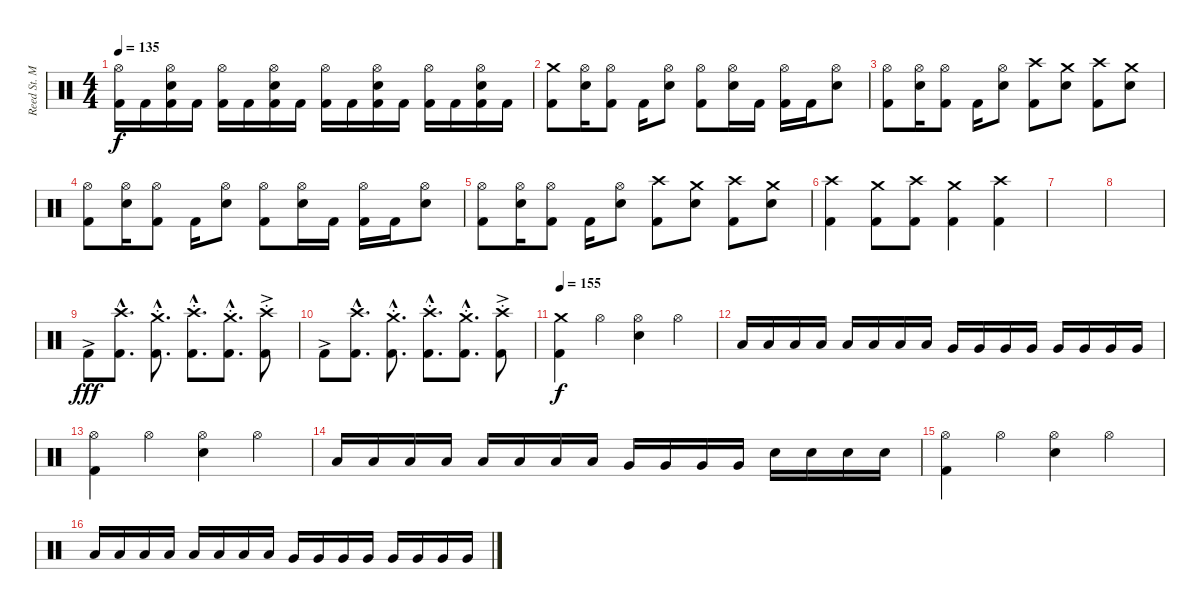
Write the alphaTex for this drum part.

\track ("Reed St. Mark" "Reed St. M") {instrument percussion}
\staff {score}
\articulation defaults
\ts (4 4)
\tempo 135
\clef neutral
\ks c
("Hi-Hat (open)" "Kick (hit) 2").16{dy f} "Kick (hit) 2".16 ("Hi-Hat (open)" "Snare (hit) 2" "Kick (hit) 2").16 "Kick (hit) 2".16 ("Hi-Hat (open)" "Kick (hit) 2").16 "Kick (hit) 2".16 ("Hi-Hat (open)" "Snare (hit) 2" "Kick (hit) 2").16 "Kick (hit) 2".16 ("Hi-Hat (open)" "Kick (hit) 2").16 "Kick (hit) 2".16 ("Hi-Hat (open)" "Snare (hit) 2" "Kick (hit) 2").16 "Kick (hit) 2".16 ("Hi-Hat (open)" "Kick (hit) 2").16 "Kick (hit) 2".16 ("Hi-Hat (open)" "Snare (hit) 2" "Kick (hit) 2").16 "Kick (hit) 2".16 |
("Crash medium (hit)" "Kick (hit) 2").8 ("Hi-Hat (open)" "Snare (hit) 2").16 ("Hi-Hat (open)" "Kick (hit) 2").8 "Kick (hit) 2".16 ("Hi-Hat (open)" "Snare (hit) 2").8 ("Hi-Hat (open)" "Kick (hit) 2").8 ("Hi-Hat (open)" "Snare (hit) 2").16 "Kick (hit) 2".16 ("Hi-Hat (open)" "Kick (hit) 2").16 "Kick (hit) 2".16 ("Hi-Hat (open)" "Snare (hit) 2").8 |
("Hi-Hat (open)" "Kick (hit) 2").8 ("Hi-Hat (open)" "Snare (hit) 2").16 ("Hi-Hat (open)" "Kick (hit) 2").8 "Kick (hit) 2".16 ("Hi-Hat (open)" "Snare (hit) 2").8 ("Crash high (hit)" "Kick (hit) 2").8 ("Crash medium (hit)" "Snare (hit) 2").8 ("Crash high (hit)" "Kick (hit) 2").8 ("Crash medium (hit)" "Snare (hit) 2").8 |
("Hi-Hat (open)" "Kick (hit) 2").8 ("Hi-Hat (open)" "Snare (hit) 2").16 ("Hi-Hat (open)" "Kick (hit) 2").8 "Kick (hit) 2".16 ("Hi-Hat (open)" "Snare (hit) 2").8 ("Hi-Hat (open)" "Kick (hit) 2").8 ("Hi-Hat (open)" "Snare (hit) 2").16 "Kick (hit) 2".16 ("Hi-Hat (open)" "Kick (hit) 2").16 "Kick (hit) 2".16 ("Hi-Hat (open)" "Snare (hit) 2").8 |
("Hi-Hat (open)" "Kick (hit) 2").8 ("Hi-Hat (open)" "Snare (hit) 2").16 ("Hi-Hat (open)" "Kick (hit) 2").8 "Kick (hit) 2".16 ("Hi-Hat (open)" "Snare (hit) 2").8 ("Crash high (hit)" "Kick (hit) 2").8 ("Crash medium (hit)" "Snare (hit) 2").8 ("Crash high (hit)" "Kick (hit) 2").8 ("Crash medium (hit)" "Snare (hit) 2").8 |
("Crash high (hit)" "Kick (hit) 2").4 ("Crash medium (hit)" "Kick (hit) 2").8 ("Crash high (hit)" "Kick (hit) 2").8 ("Crash medium (hit)" "Kick (hit) 2").4 ("Crash high (hit)" "Kick (hit) 2").4 |
|
|
"Kick (hit) 2"{ac}.8{dy fff} ("Crash high (hit)"{hac} "Kick (hit) 2"{hac}).8{d} ("Crash medium (hit)"{hac st} "Kick (hit) 2"{hac}).8{d} ("Crash high (hit)"{hac st} "Kick (hit) 2"{hac}).8{d} ("Crash medium (hit)"{hac st} "Kick (hit) 2"{hac}).8{d} ("Crash high (hit)"{st} "Kick (hit) 2"{ac}).8 |
"Kick (hit) 2"{ac}.8 ("Crash high (hit)"{hac} "Kick (hit) 2"{hac}).8{d} ("Crash medium (hit)"{hac st} "Kick (hit) 2"{hac}).8{d} ("Crash high (hit)"{hac st} "Kick (hit) 2"{hac}).8{d} ("Crash medium (hit)"{hac st} "Kick (hit) 2"{hac}).8{d} ("Crash high (hit)"{st} "Kick (hit) 2"{ac}).8 |
\tempo 155
("Crash medium (hit)" "Kick (hit) 2").4{dy f} "Hi-Hat (open)".4 ("Hi-Hat (open)" "Snare (hit) 2").4 "Hi-Hat (open)".4 |
"Low Tom (hit)".16 "Low Tom (hit)".16 "Low Tom (hit)".16 "Low Tom (hit)".16 "Low Tom (hit)".16 "Low Tom (hit)".16 "Low Tom (hit)".16 "Low Tom (hit)".16 "Very Low Tom (hit)".16 "Very Low Tom (hit)".16 "Very Low Tom (hit)".16 "Very Low Tom (hit)".16 "Very Low Tom (hit)".16 "Very Low Tom (hit)".16 "Very Low Tom (hit)".16 "Very Low Tom (hit)".16 |
("Hi-Hat (open)" "Kick (hit) 2").4 "Hi-Hat (open)".4 ("Hi-Hat (open)" "Snare (hit) 2").4 "Hi-Hat (open)".4 |
"Low Tom (hit)".16 "Low Tom (hit)".16 "Low Tom (hit)".16 "Low Tom (hit)".16 "Low Tom (hit)".16 "Low Tom (hit)".16 "Low Tom (hit)".16 "Low Tom (hit)".16 "Very Low Tom (hit)".16 "Very Low Tom (hit)".16 "Very Low Tom (hit)".16 "Very Low Tom (hit)".16 "Snare (hit) 2".16 "Snare (hit) 2".16 "Snare (hit) 2".16 "Snare (hit) 2".16 |
("Hi-Hat (open)" "Kick (hit) 2").4 "Hi-Hat (open)".4 ("Hi-Hat (open)" "Snare (hit) 2").4 "Hi-Hat (open)".4 |
"Low Tom (hit)".16 "Low Tom (hit)".16 "Low Tom (hit)".16 "Low Tom (hit)".16 "Low Tom (hit)".16 "Low Tom (hit)".16 "Low Tom (hit)".16 "Low Tom (hit)".16 "Very Low Tom (hit)".16 "Very Low Tom (hit)".16 "Very Low Tom (hit)".16 "Very Low Tom (hit)".16 "Very Low Tom (hit)".16 "Very Low Tom (hit)".16 "Very Low Tom (hit)".16 "Very Low Tom (hit)".16
